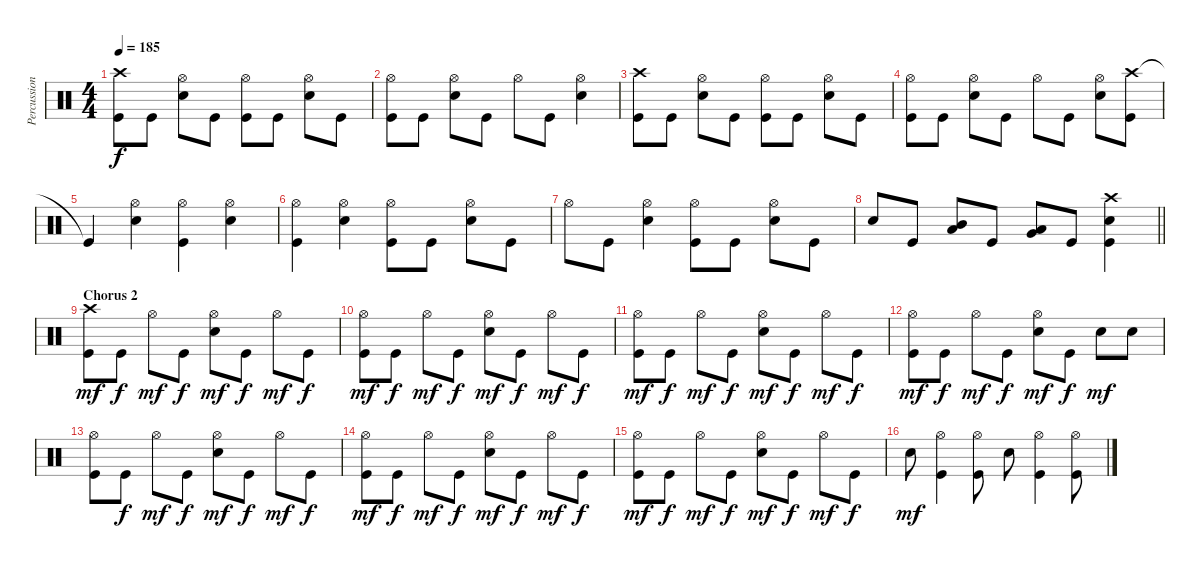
\track ("Percussion" "Percussion") {instrument percussion}
\staff {score}
\articulation defaults
\ts (4 4)
\tempo 185
\clef neutral
\ks c
("Crash high (hit)" "Kick (hit)").8{dy f} "Kick (hit)".8 ("Snare (hit) 2" "Hi-Hat (open)").8 "Kick (hit)".8 ("Kick (hit)" "Hi-Hat (open)").8 "Kick (hit)".8 ("Snare (hit) 2" "Hi-Hat (open)").8 "Kick (hit)".8 |
("Kick (hit)" "Hi-Hat (open)").8 "Kick (hit)".8 ("Snare (hit) 2" "Hi-Hat (open)").8 "Kick (hit)".8 "Hi-Hat (open)".8 "Kick (hit)".8 ("Snare (hit) 2" "Hi-Hat (open)").4 |
("Crash high (hit)" "Kick (hit)").8 "Kick (hit)".8 ("Snare (hit) 2" "Hi-Hat (open)").8 "Kick (hit)".8 ("Kick (hit)" "Hi-Hat (open)").8 "Kick (hit)".8 ("Snare (hit) 2" "Hi-Hat (open)").8 "Kick (hit)".8 |
("Kick (hit)" "Hi-Hat (open)").8 "Kick (hit)".8 ("Snare (hit) 2" "Hi-Hat (open)").8 "Kick (hit)".8 "Hi-Hat (open)".8 "Kick (hit)".8 ("Snare (hit) 2" "Hi-Hat (open)").8 ("Crash high (hit)" "Kick (hit)").8 |
"Kick (hit)"{t}.4 ("Hi-Hat (open)" "Snare (hit) 2").4 ("Hi-Hat (open)" "Kick (hit)").4 ("Snare (hit) 2" "Hi-Hat (open)").4 |
("Kick (hit)" "Hi-Hat (open)").4 ("Hi-Hat (open)" "Snare (hit) 2").4 ("Kick (hit)" "Hi-Hat (open)").8 "Kick (hit)".8 ("Snare (hit) 2" "Hi-Hat (open)").8 "Kick (hit)".8 |
"Hi-Hat (open)".8 "Kick (hit)".8 ("Snare (hit) 2" "Hi-Hat (open)").4 ("Hi-Hat (open)" "Kick (hit)").8 "Kick (hit)".8 ("Snare (hit) 2" "Hi-Hat (open)").8 "Kick (hit)".8 |
\barLineRight lightlight "Snare (hit) 2".8 "Kick (hit)".8
("Mid Tom (hit)" "Low Tom (hit)").8 "Kick (hit)".8 ("Very Low Tom (hit)" "Low Floor Tom (hit)").8 "Kick (hit)".8 ("Crash high (hit)" "Snare (hit) 2" "Kick (hit)").4 |
\section ("" "Chorus 2")
("Crash high (hit)" "Kick (hit)").8{dy mf} "Kick (hit)".8{dy f} "Hi-Hat (open)".8{dy mf} "Kick (hit)".8{dy f} ("Snare (hit) 2" "Hi-Hat (open)").8{dy mf} "Kick (hit)".8{dy f} "Hi-Hat (open)".8{dy mf} "Kick (hit)".8{dy f} |
("Kick (hit)" "Hi-Hat (open)").8{dy mf} "Kick (hit)".8{dy f} "Hi-Hat (open)".8{dy mf} "Kick (hit)".8{dy f} ("Snare (hit) 2" "Hi-Hat (open)").8{dy mf} "Kick (hit)".8{dy f} "Hi-Hat (open)".8{dy mf} "Kick (hit)".8{dy f} |
("Hi-Hat (open)" "Kick (hit)").8{dy mf} "Kick (hit)".8{dy f} "Hi-Hat (open)".8{dy mf} "Kick (hit)".8{dy f} ("Snare (hit) 2" "Hi-Hat (open)").8{dy mf} "Kick (hit)".8{dy f} "Hi-Hat (open)".8{dy mf} "Kick (hit)".8{dy f} |
("Hi-Hat (open)" "Kick (hit)").8{dy mf} "Kick (hit)".8{dy f} "Hi-Hat (open)".8{dy mf} "Kick (hit)".8{dy f} ("Snare (hit) 2" "Hi-Hat (open)").8{dy mf} "Kick (hit)".8{dy f} "Snare (hit) 2".8{dy mf} "Snare (hit) 2".8 |
("Hi-Hat (open)" "Kick (hit)").8 "Kick (hit)".8{dy f} "Hi-Hat (open)".8{dy mf} "Kick (hit)".8{dy f} ("Snare (hit) 2" "Hi-Hat (open)").8{dy mf} "Kick (hit)".8{dy f} "Hi-Hat (open)".8{dy mf} "Kick (hit)".8{dy f} |
("Hi-Hat (open)" "Kick (hit)").8{dy mf} "Kick (hit)".8{dy f} "Hi-Hat (open)".8{dy mf} "Kick (hit)".8{dy f} ("Snare (hit) 2" "Hi-Hat (open)").8{dy mf} "Kick (hit)".8{dy f} "Hi-Hat (open)".8{dy mf} "Kick (hit)".8{dy f} |
("Hi-Hat (open)" "Kick (hit)").8{dy mf} "Kick (hit)".8{dy f} "Hi-Hat (open)".8{dy mf} "Kick (hit)".8{dy f} ("Snare (hit) 2" "Hi-Hat (open)").8{dy mf} "Kick (hit)".8{dy f} "Hi-Hat (open)".8{dy mf} "Kick (hit)".8{dy f} |
"Snare (hit) 2".8{dy mf} ("Hi-Hat (open)" "Kick (hit)").4 ("Hi-Hat (open)" "Kick (hit)").8 "Snare (hit) 2".8 ("Kick (hit)" "Hi-Hat (open)").4 ("Kick (hit)" "Hi-Hat (open)").8
